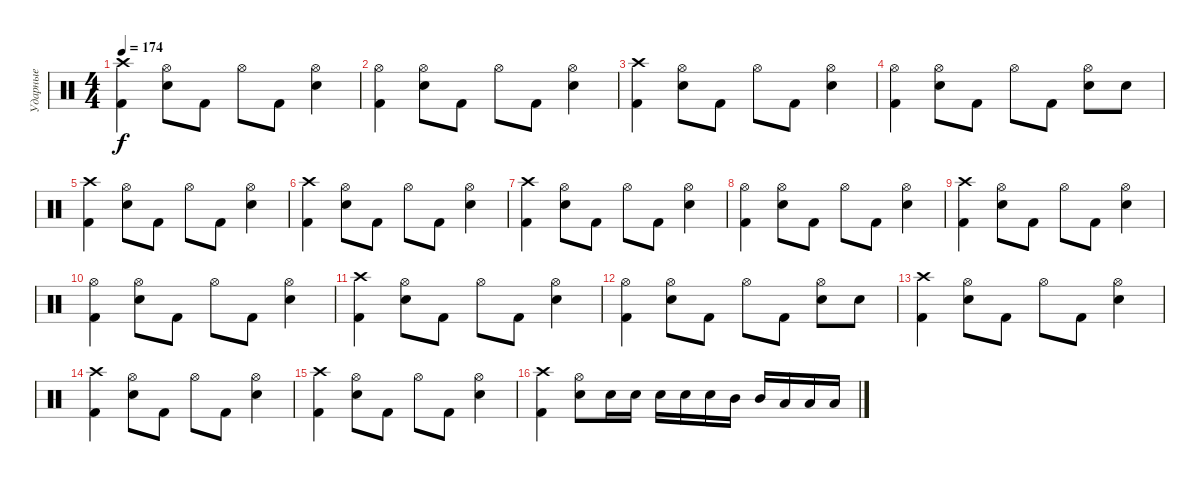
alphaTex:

\track ("Ударные" "Ударные") {instrument percussion}
\staff {score}
\articulation defaults
\ts (4 4)
\tempo 174
\clef neutral
\ks c
("Crash high (hit)" "Kick (hit) 2").4{dy f} ("Hi-Hat (open)" "Electric Snare (hit)").8 "Kick (hit) 2".8 "Hi-Hat (open)".8 "Kick (hit) 2".8 ("Hi-Hat (open)" "Electric Snare (hit)").4 |
("Hi-Hat (open)" "Kick (hit) 2").4 ("Hi-Hat (open)" "Electric Snare (hit)").8 "Kick (hit) 2".8 "Hi-Hat (open)".8 "Kick (hit) 2".8 ("Hi-Hat (open)" "Electric Snare (hit)").4 |
("Crash high (hit)" "Kick (hit) 2").4 ("Hi-Hat (open)" "Electric Snare (hit)").8 "Kick (hit) 2".8 "Hi-Hat (open)".8 "Kick (hit) 2".8 ("Hi-Hat (open)" "Electric Snare (hit)").4 |
("Hi-Hat (open)" "Kick (hit) 2").4 ("Hi-Hat (open)" "Electric Snare (hit)").8 "Kick (hit) 2".8 "Hi-Hat (open)".8 "Kick (hit) 2".8 ("Hi-Hat (open)" "Electric Snare (hit)").8 "Electric Snare (hit)".8 |
("Crash high (hit)" "Kick (hit) 2").4 ("Hi-Hat (open)" "Electric Snare (hit)").8 "Kick (hit) 2".8 "Hi-Hat (open)".8 "Kick (hit) 2".8 ("Hi-Hat (open)" "Electric Snare (hit)").4 |
("Crash high (hit)" "Kick (hit) 2").4 ("Hi-Hat (open)" "Electric Snare (hit)").8 "Kick (hit) 2".8 "Hi-Hat (open)".8 "Kick (hit) 2".8 ("Hi-Hat (open)" "Electric Snare (hit)").4 |
("Crash high (hit)" "Kick (hit) 2").4 ("Hi-Hat (open)" "Electric Snare (hit)").8 "Kick (hit) 2".8 "Hi-Hat (open)".8 "Kick (hit) 2".8 ("Hi-Hat (open)" "Electric Snare (hit)").4 |
("Hi-Hat (open)" "Kick (hit) 2").4 ("Hi-Hat (open)" "Electric Snare (hit)").8 "Kick (hit) 2".8 "Hi-Hat (open)".8 "Kick (hit) 2".8 ("Hi-Hat (open)" "Electric Snare (hit)").4 |
("Crash high (hit)" "Kick (hit) 2").4 ("Hi-Hat (open)" "Electric Snare (hit)").8 "Kick (hit) 2".8 "Hi-Hat (open)".8 "Kick (hit) 2".8 ("Hi-Hat (open)" "Electric Snare (hit)").4 |
("Hi-Hat (open)" "Kick (hit) 2").4 ("Hi-Hat (open)" "Electric Snare (hit)").8 "Kick (hit) 2".8 "Hi-Hat (open)".8 "Kick (hit) 2".8 ("Hi-Hat (open)" "Electric Snare (hit)").4 |
("Crash high (hit)" "Kick (hit) 2").4 ("Hi-Hat (open)" "Electric Snare (hit)").8 "Kick (hit) 2".8 "Hi-Hat (open)".8 "Kick (hit) 2".8 ("Hi-Hat (open)" "Electric Snare (hit)").4 |
("Hi-Hat (open)" "Kick (hit) 2").4 ("Hi-Hat (open)" "Electric Snare (hit)").8 "Kick (hit) 2".8 "Hi-Hat (open)".8 "Kick (hit) 2".8 ("Hi-Hat (open)" "Electric Snare (hit)").8 "Electric Snare (hit)".8 |
("Crash high (hit)" "Kick (hit) 2").4 ("Hi-Hat (open)" "Electric Snare (hit)").8 "Kick (hit) 2".8 "Hi-Hat (open)".8 "Kick (hit) 2".8 ("Hi-Hat (open)" "Electric Snare (hit)").4 |
("Crash high (hit)" "Kick (hit) 2").4 ("Hi-Hat (open)" "Electric Snare (hit)").8 "Kick (hit) 2".8 "Hi-Hat (open)".8 "Kick (hit) 2".8 ("Hi-Hat (open)" "Electric Snare (hit)").4 |
("Crash high (hit)" "Kick (hit) 2").4 ("Hi-Hat (open)" "Electric Snare (hit)").8 "Kick (hit) 2".8 "Hi-Hat (open)".8 "Kick (hit) 2".8 ("Hi-Hat (open)" "Electric Snare (hit)").4 |
("Crash high (hit)" "Kick (hit) 2").4 ("Hi-Hat (open)" "Electric Snare (hit)").8 "Electric Snare (hit)".16 "Electric Snare (hit)".16 "Electric Snare (hit)".16 "Electric Snare (hit)".16 "Electric Snare (hit)".16 "Mid Tom (hit)".16 "Mid Tom (hit)".16 "Low Tom (hit)".16 "Low Tom (hit)".16 "Low Tom (hit)".16
